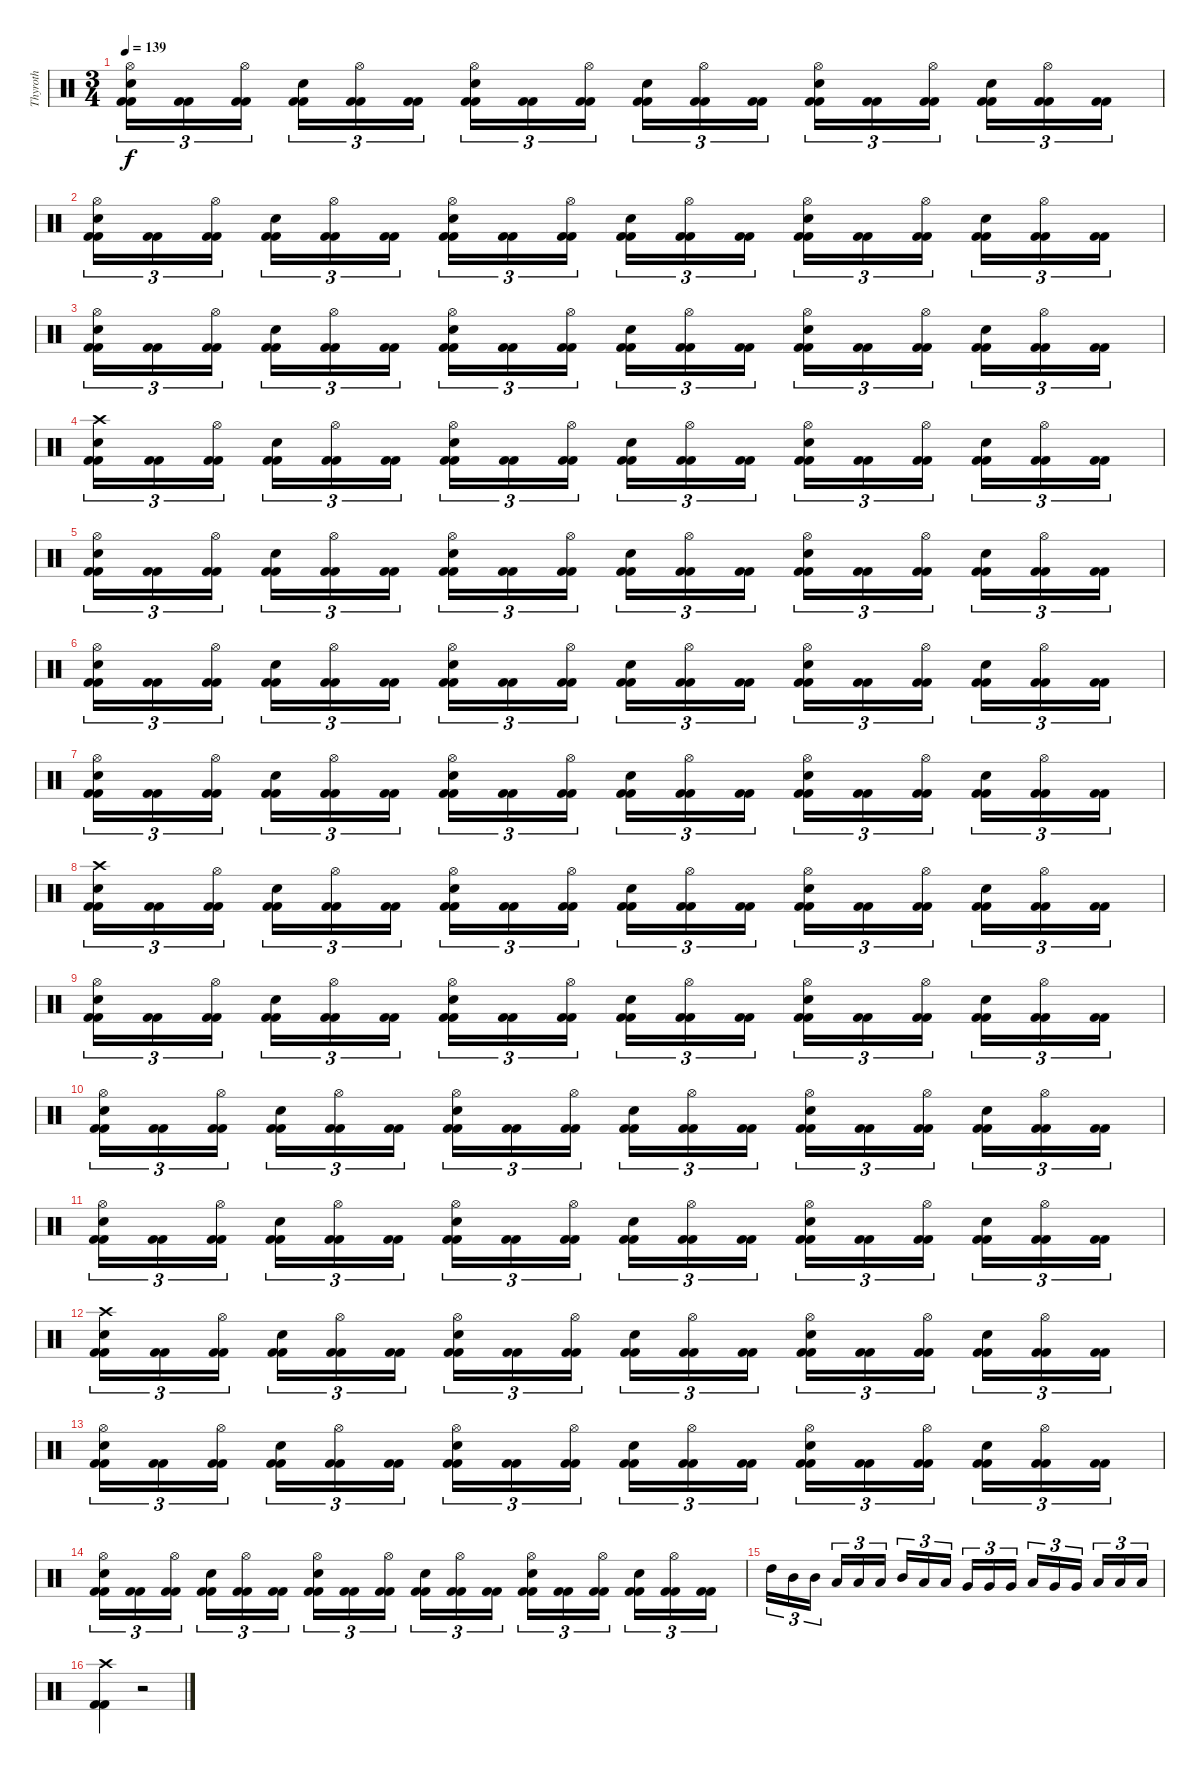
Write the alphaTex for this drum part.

\track ("Thyroth" "Thyroth") {instrument percussion}
\staff {score}
\articulation defaults
\ts (3 4)
\tempo 139
\clef neutral
\ks c
("Kick (hit) 2" "Kick (hit) 2" "Snare (hit) 2" "Hi-Hat (open)").16{tu (3 2) dy f} ("Kick (hit) 2" "Kick (hit) 2").16{tu (3 2)} ("Kick (hit) 2" "Kick (hit) 2" "Hi-Hat (open)").16{tu (3 2)} ("Kick (hit) 2" "Kick (hit) 2" "Snare (hit) 2").16{tu (3 2)} ("Kick (hit) 2" "Kick (hit) 2" "Hi-Hat (open)").16{tu (3 2)} ("Kick (hit) 2" "Kick (hit) 2").16{tu (3 2)} ("Kick (hit) 2" "Kick (hit) 2" "Snare (hit) 2" "Hi-Hat (open)").16{tu (3 2)} ("Kick (hit) 2" "Kick (hit) 2").16{tu (3 2)} ("Kick (hit) 2" "Kick (hit) 2" "Hi-Hat (open)").16{tu (3 2)} ("Kick (hit) 2" "Kick (hit) 2" "Snare (hit) 2").16{tu (3 2)} ("Kick (hit) 2" "Kick (hit) 2" "Hi-Hat (open)").16{tu (3 2)} ("Kick (hit) 2" "Kick (hit) 2").16{tu (3 2)} ("Kick (hit) 2" "Kick (hit) 2" "Snare (hit) 2" "Hi-Hat (open)").16{tu (3 2)} ("Kick (hit) 2" "Kick (hit) 2").16{tu (3 2)} ("Kick (hit) 2" "Kick (hit) 2" "Hi-Hat (open)").16{tu (3 2)} ("Kick (hit) 2" "Kick (hit) 2" "Snare (hit) 2").16{tu (3 2)} ("Kick (hit) 2" "Kick (hit) 2" "Hi-Hat (open)").16{tu (3 2)} ("Kick (hit) 2" "Kick (hit) 2").16{tu (3 2)} |
("Kick (hit) 2" "Kick (hit) 2" "Snare (hit) 2" "Hi-Hat (open)").16{tu (3 2)} ("Kick (hit) 2" "Kick (hit) 2").16{tu (3 2)} ("Kick (hit) 2" "Kick (hit) 2" "Hi-Hat (open)").16{tu (3 2)} ("Kick (hit) 2" "Kick (hit) 2" "Snare (hit) 2").16{tu (3 2)} ("Kick (hit) 2" "Kick (hit) 2" "Hi-Hat (open)").16{tu (3 2)} ("Kick (hit) 2" "Kick (hit) 2").16{tu (3 2)} ("Kick (hit) 2" "Kick (hit) 2" "Snare (hit) 2" "Hi-Hat (open)").16{tu (3 2)} ("Kick (hit) 2" "Kick (hit) 2").16{tu (3 2)} ("Kick (hit) 2" "Kick (hit) 2" "Hi-Hat (open)").16{tu (3 2)} ("Kick (hit) 2" "Kick (hit) 2" "Snare (hit) 2").16{tu (3 2)} ("Kick (hit) 2" "Kick (hit) 2" "Hi-Hat (open)").16{tu (3 2)} ("Kick (hit) 2" "Kick (hit) 2").16{tu (3 2)} ("Kick (hit) 2" "Kick (hit) 2" "Snare (hit) 2" "Hi-Hat (open)").16{tu (3 2)} ("Kick (hit) 2" "Kick (hit) 2").16{tu (3 2)} ("Kick (hit) 2" "Kick (hit) 2" "Hi-Hat (open)").16{tu (3 2)} ("Kick (hit) 2" "Kick (hit) 2" "Snare (hit) 2").16{tu (3 2)} ("Kick (hit) 2" "Kick (hit) 2" "Hi-Hat (open)").16{tu (3 2)} ("Kick (hit) 2" "Kick (hit) 2").16{tu (3 2)} |
("Kick (hit) 2" "Kick (hit) 2" "Snare (hit) 2" "Hi-Hat (open)").16{tu (3 2)} ("Kick (hit) 2" "Kick (hit) 2").16{tu (3 2)} ("Kick (hit) 2" "Kick (hit) 2" "Hi-Hat (open)").16{tu (3 2)} ("Kick (hit) 2" "Kick (hit) 2" "Snare (hit) 2").16{tu (3 2)} ("Kick (hit) 2" "Kick (hit) 2" "Hi-Hat (open)").16{tu (3 2)} ("Kick (hit) 2" "Kick (hit) 2").16{tu (3 2)} ("Kick (hit) 2" "Kick (hit) 2" "Snare (hit) 2" "Hi-Hat (open)").16{tu (3 2)} ("Kick (hit) 2" "Kick (hit) 2").16{tu (3 2)} ("Kick (hit) 2" "Kick (hit) 2" "Hi-Hat (open)").16{tu (3 2)} ("Kick (hit) 2" "Kick (hit) 2" "Snare (hit) 2").16{tu (3 2)} ("Kick (hit) 2" "Kick (hit) 2" "Hi-Hat (open)").16{tu (3 2)} ("Kick (hit) 2" "Kick (hit) 2").16{tu (3 2)} ("Kick (hit) 2" "Kick (hit) 2" "Snare (hit) 2" "Hi-Hat (open)").16{tu (3 2)} ("Kick (hit) 2" "Kick (hit) 2").16{tu (3 2)} ("Kick (hit) 2" "Kick (hit) 2" "Hi-Hat (open)").16{tu (3 2)} ("Kick (hit) 2" "Kick (hit) 2" "Snare (hit) 2").16{tu (3 2)} ("Kick (hit) 2" "Kick (hit) 2" "Hi-Hat (open)").16{tu (3 2)} ("Kick (hit) 2" "Kick (hit) 2").16{tu (3 2)} |
("Kick (hit) 2" "Kick (hit) 2" "Snare (hit) 2" "Crash high (hit)").16{tu (3 2)} ("Kick (hit) 2" "Kick (hit) 2").16{tu (3 2)} ("Kick (hit) 2" "Kick (hit) 2" "Hi-Hat (open)").16{tu (3 2)} ("Kick (hit) 2" "Kick (hit) 2" "Snare (hit) 2").16{tu (3 2)} ("Kick (hit) 2" "Kick (hit) 2" "Hi-Hat (open)").16{tu (3 2)} ("Kick (hit) 2" "Kick (hit) 2").16{tu (3 2)} ("Kick (hit) 2" "Kick (hit) 2" "Snare (hit) 2" "Hi-Hat (open)").16{tu (3 2)} ("Kick (hit) 2" "Kick (hit) 2").16{tu (3 2)} ("Kick (hit) 2" "Kick (hit) 2" "Hi-Hat (open)").16{tu (3 2)} ("Kick (hit) 2" "Kick (hit) 2" "Snare (hit) 2").16{tu (3 2)} ("Kick (hit) 2" "Kick (hit) 2" "Hi-Hat (open)").16{tu (3 2)} ("Kick (hit) 2" "Kick (hit) 2").16{tu (3 2)} ("Kick (hit) 2" "Kick (hit) 2" "Snare (hit) 2" "Hi-Hat (open)").16{tu (3 2)} ("Kick (hit) 2" "Kick (hit) 2").16{tu (3 2)} ("Kick (hit) 2" "Kick (hit) 2" "Hi-Hat (open)").16{tu (3 2)} ("Kick (hit) 2" "Kick (hit) 2" "Snare (hit) 2").16{tu (3 2)} ("Kick (hit) 2" "Kick (hit) 2" "Hi-Hat (open)").16{tu (3 2)} ("Kick (hit) 2" "Kick (hit) 2").16{tu (3 2)} |
("Kick (hit) 2" "Kick (hit) 2" "Snare (hit) 2" "Hi-Hat (open)").16{tu (3 2)} ("Kick (hit) 2" "Kick (hit) 2").16{tu (3 2)} ("Kick (hit) 2" "Kick (hit) 2" "Hi-Hat (open)").16{tu (3 2)} ("Kick (hit) 2" "Kick (hit) 2" "Snare (hit) 2").16{tu (3 2)} ("Kick (hit) 2" "Kick (hit) 2" "Hi-Hat (open)").16{tu (3 2)} ("Kick (hit) 2" "Kick (hit) 2").16{tu (3 2)} ("Kick (hit) 2" "Kick (hit) 2" "Snare (hit) 2" "Hi-Hat (open)").16{tu (3 2)} ("Kick (hit) 2" "Kick (hit) 2").16{tu (3 2)} ("Kick (hit) 2" "Kick (hit) 2" "Hi-Hat (open)").16{tu (3 2)} ("Kick (hit) 2" "Kick (hit) 2" "Snare (hit) 2").16{tu (3 2)} ("Kick (hit) 2" "Kick (hit) 2" "Hi-Hat (open)").16{tu (3 2)} ("Kick (hit) 2" "Kick (hit) 2").16{tu (3 2)} ("Kick (hit) 2" "Kick (hit) 2" "Snare (hit) 2" "Hi-Hat (open)").16{tu (3 2)} ("Kick (hit) 2" "Kick (hit) 2").16{tu (3 2)} ("Kick (hit) 2" "Kick (hit) 2" "Hi-Hat (open)").16{tu (3 2)} ("Kick (hit) 2" "Kick (hit) 2" "Snare (hit) 2").16{tu (3 2)} ("Kick (hit) 2" "Kick (hit) 2" "Hi-Hat (open)").16{tu (3 2)} ("Kick (hit) 2" "Kick (hit) 2").16{tu (3 2)} |
("Kick (hit) 2" "Kick (hit) 2" "Snare (hit) 2" "Hi-Hat (open)").16{tu (3 2)} ("Kick (hit) 2" "Kick (hit) 2").16{tu (3 2)} ("Kick (hit) 2" "Kick (hit) 2" "Hi-Hat (open)").16{tu (3 2)} ("Kick (hit) 2" "Kick (hit) 2" "Snare (hit) 2").16{tu (3 2)} ("Kick (hit) 2" "Kick (hit) 2" "Hi-Hat (open)").16{tu (3 2)} ("Kick (hit) 2" "Kick (hit) 2").16{tu (3 2)} ("Kick (hit) 2" "Kick (hit) 2" "Snare (hit) 2" "Hi-Hat (open)").16{tu (3 2)} ("Kick (hit) 2" "Kick (hit) 2").16{tu (3 2)} ("Kick (hit) 2" "Kick (hit) 2" "Hi-Hat (open)").16{tu (3 2)} ("Kick (hit) 2" "Kick (hit) 2" "Snare (hit) 2").16{tu (3 2)} ("Kick (hit) 2" "Kick (hit) 2" "Hi-Hat (open)").16{tu (3 2)} ("Kick (hit) 2" "Kick (hit) 2").16{tu (3 2)} ("Kick (hit) 2" "Kick (hit) 2" "Snare (hit) 2" "Hi-Hat (open)").16{tu (3 2)} ("Kick (hit) 2" "Kick (hit) 2").16{tu (3 2)} ("Kick (hit) 2" "Kick (hit) 2" "Hi-Hat (open)").16{tu (3 2)} ("Kick (hit) 2" "Kick (hit) 2" "Snare (hit) 2").16{tu (3 2)} ("Kick (hit) 2" "Kick (hit) 2" "Hi-Hat (open)").16{tu (3 2)} ("Kick (hit) 2" "Kick (hit) 2").16{tu (3 2)} |
("Kick (hit) 2" "Kick (hit) 2" "Snare (hit) 2" "Hi-Hat (open)").16{tu (3 2)} ("Kick (hit) 2" "Kick (hit) 2").16{tu (3 2)} ("Kick (hit) 2" "Kick (hit) 2" "Hi-Hat (open)").16{tu (3 2)} ("Kick (hit) 2" "Kick (hit) 2" "Snare (hit) 2").16{tu (3 2)} ("Kick (hit) 2" "Kick (hit) 2" "Hi-Hat (open)").16{tu (3 2)} ("Kick (hit) 2" "Kick (hit) 2").16{tu (3 2)} ("Kick (hit) 2" "Kick (hit) 2" "Snare (hit) 2" "Hi-Hat (open)").16{tu (3 2)} ("Kick (hit) 2" "Kick (hit) 2").16{tu (3 2)} ("Kick (hit) 2" "Kick (hit) 2" "Hi-Hat (open)").16{tu (3 2)} ("Kick (hit) 2" "Kick (hit) 2" "Snare (hit) 2").16{tu (3 2)} ("Kick (hit) 2" "Kick (hit) 2" "Hi-Hat (open)").16{tu (3 2)} ("Kick (hit) 2" "Kick (hit) 2").16{tu (3 2)} ("Kick (hit) 2" "Kick (hit) 2" "Snare (hit) 2" "Hi-Hat (open)").16{tu (3 2)} ("Kick (hit) 2" "Kick (hit) 2").16{tu (3 2)} ("Kick (hit) 2" "Kick (hit) 2" "Hi-Hat (open)").16{tu (3 2)} ("Kick (hit) 2" "Kick (hit) 2" "Snare (hit) 2").16{tu (3 2)} ("Kick (hit) 2" "Kick (hit) 2" "Hi-Hat (open)").16{tu (3 2)} ("Kick (hit) 2" "Kick (hit) 2").16{tu (3 2)} |
("Kick (hit) 2" "Kick (hit) 2" "Snare (hit) 2" "Crash high (hit)").16{tu (3 2)} ("Kick (hit) 2" "Kick (hit) 2").16{tu (3 2)} ("Kick (hit) 2" "Kick (hit) 2" "Hi-Hat (open)").16{tu (3 2)} ("Kick (hit) 2" "Kick (hit) 2" "Snare (hit) 2").16{tu (3 2)} ("Kick (hit) 2" "Kick (hit) 2" "Hi-Hat (open)").16{tu (3 2)} ("Kick (hit) 2" "Kick (hit) 2").16{tu (3 2)} ("Kick (hit) 2" "Kick (hit) 2" "Snare (hit) 2" "Hi-Hat (open)").16{tu (3 2)} ("Kick (hit) 2" "Kick (hit) 2").16{tu (3 2)} ("Kick (hit) 2" "Kick (hit) 2" "Hi-Hat (open)").16{tu (3 2)} ("Kick (hit) 2" "Kick (hit) 2" "Snare (hit) 2").16{tu (3 2)} ("Kick (hit) 2" "Kick (hit) 2" "Hi-Hat (open)").16{tu (3 2)} ("Kick (hit) 2" "Kick (hit) 2").16{tu (3 2)} ("Kick (hit) 2" "Kick (hit) 2" "Snare (hit) 2" "Hi-Hat (open)").16{tu (3 2)} ("Kick (hit) 2" "Kick (hit) 2").16{tu (3 2)} ("Kick (hit) 2" "Kick (hit) 2" "Hi-Hat (open)").16{tu (3 2)} ("Kick (hit) 2" "Kick (hit) 2" "Snare (hit) 2").16{tu (3 2)} ("Kick (hit) 2" "Kick (hit) 2" "Hi-Hat (open)").16{tu (3 2)} ("Kick (hit) 2" "Kick (hit) 2").16{tu (3 2)} |
("Kick (hit) 2" "Kick (hit) 2" "Snare (hit) 2" "Hi-Hat (open)").16{tu (3 2)} ("Kick (hit) 2" "Kick (hit) 2").16{tu (3 2)} ("Kick (hit) 2" "Kick (hit) 2" "Hi-Hat (open)").16{tu (3 2)} ("Kick (hit) 2" "Kick (hit) 2" "Snare (hit) 2").16{tu (3 2)} ("Kick (hit) 2" "Kick (hit) 2" "Hi-Hat (open)").16{tu (3 2)} ("Kick (hit) 2" "Kick (hit) 2").16{tu (3 2)} ("Kick (hit) 2" "Kick (hit) 2" "Snare (hit) 2" "Hi-Hat (open)").16{tu (3 2)} ("Kick (hit) 2" "Kick (hit) 2").16{tu (3 2)} ("Kick (hit) 2" "Kick (hit) 2" "Hi-Hat (open)").16{tu (3 2)} ("Kick (hit) 2" "Kick (hit) 2" "Snare (hit) 2").16{tu (3 2)} ("Kick (hit) 2" "Kick (hit) 2" "Hi-Hat (open)").16{tu (3 2)} ("Kick (hit) 2" "Kick (hit) 2").16{tu (3 2)} ("Kick (hit) 2" "Kick (hit) 2" "Snare (hit) 2" "Hi-Hat (open)").16{tu (3 2)} ("Kick (hit) 2" "Kick (hit) 2").16{tu (3 2)} ("Kick (hit) 2" "Kick (hit) 2" "Hi-Hat (open)").16{tu (3 2)} ("Kick (hit) 2" "Kick (hit) 2" "Snare (hit) 2").16{tu (3 2)} ("Kick (hit) 2" "Kick (hit) 2" "Hi-Hat (open)").16{tu (3 2)} ("Kick (hit) 2" "Kick (hit) 2").16{tu (3 2)} |
("Kick (hit) 2" "Kick (hit) 2" "Snare (hit) 2" "Hi-Hat (open)").16{tu (3 2)} ("Kick (hit) 2" "Kick (hit) 2").16{tu (3 2)} ("Kick (hit) 2" "Kick (hit) 2" "Hi-Hat (open)").16{tu (3 2)} ("Kick (hit) 2" "Kick (hit) 2" "Snare (hit) 2").16{tu (3 2)} ("Kick (hit) 2" "Kick (hit) 2" "Hi-Hat (open)").16{tu (3 2)} ("Kick (hit) 2" "Kick (hit) 2").16{tu (3 2)} ("Kick (hit) 2" "Kick (hit) 2" "Snare (hit) 2" "Hi-Hat (open)").16{tu (3 2)} ("Kick (hit) 2" "Kick (hit) 2").16{tu (3 2)} ("Kick (hit) 2" "Kick (hit) 2" "Hi-Hat (open)").16{tu (3 2)} ("Kick (hit) 2" "Kick (hit) 2" "Snare (hit) 2").16{tu (3 2)} ("Kick (hit) 2" "Kick (hit) 2" "Hi-Hat (open)").16{tu (3 2)} ("Kick (hit) 2" "Kick (hit) 2").16{tu (3 2)} ("Kick (hit) 2" "Kick (hit) 2" "Snare (hit) 2" "Hi-Hat (open)").16{tu (3 2)} ("Kick (hit) 2" "Kick (hit) 2").16{tu (3 2)} ("Kick (hit) 2" "Kick (hit) 2" "Hi-Hat (open)").16{tu (3 2)} ("Kick (hit) 2" "Kick (hit) 2" "Snare (hit) 2").16{tu (3 2)} ("Kick (hit) 2" "Kick (hit) 2" "Hi-Hat (open)").16{tu (3 2)} ("Kick (hit) 2" "Kick (hit) 2").16{tu (3 2)} |
("Kick (hit) 2" "Kick (hit) 2" "Snare (hit) 2" "Hi-Hat (open)").16{tu (3 2)} ("Kick (hit) 2" "Kick (hit) 2").16{tu (3 2)} ("Kick (hit) 2" "Kick (hit) 2" "Hi-Hat (open)").16{tu (3 2)} ("Kick (hit) 2" "Kick (hit) 2" "Snare (hit) 2").16{tu (3 2)} ("Kick (hit) 2" "Kick (hit) 2" "Hi-Hat (open)").16{tu (3 2)} ("Kick (hit) 2" "Kick (hit) 2").16{tu (3 2)} ("Kick (hit) 2" "Kick (hit) 2" "Snare (hit) 2" "Hi-Hat (open)").16{tu (3 2)} ("Kick (hit) 2" "Kick (hit) 2").16{tu (3 2)} ("Kick (hit) 2" "Kick (hit) 2" "Hi-Hat (open)").16{tu (3 2)} ("Kick (hit) 2" "Kick (hit) 2" "Snare (hit) 2").16{tu (3 2)} ("Kick (hit) 2" "Kick (hit) 2" "Hi-Hat (open)").16{tu (3 2)} ("Kick (hit) 2" "Kick (hit) 2").16{tu (3 2)} ("Kick (hit) 2" "Kick (hit) 2" "Snare (hit) 2" "Hi-Hat (open)").16{tu (3 2)} ("Kick (hit) 2" "Kick (hit) 2").16{tu (3 2)} ("Kick (hit) 2" "Kick (hit) 2" "Hi-Hat (open)").16{tu (3 2)} ("Kick (hit) 2" "Kick (hit) 2" "Snare (hit) 2").16{tu (3 2)} ("Kick (hit) 2" "Kick (hit) 2" "Hi-Hat (open)").16{tu (3 2)} ("Kick (hit) 2" "Kick (hit) 2").16{tu (3 2)} |
("Kick (hit) 2" "Kick (hit) 2" "Snare (hit) 2" "Crash high (hit)").16{tu (3 2)} ("Kick (hit) 2" "Kick (hit) 2").16{tu (3 2)} ("Kick (hit) 2" "Kick (hit) 2" "Hi-Hat (open)").16{tu (3 2)} ("Kick (hit) 2" "Kick (hit) 2" "Snare (hit) 2").16{tu (3 2)} ("Kick (hit) 2" "Kick (hit) 2" "Hi-Hat (open)").16{tu (3 2)} ("Kick (hit) 2" "Kick (hit) 2").16{tu (3 2)} ("Kick (hit) 2" "Kick (hit) 2" "Snare (hit) 2" "Hi-Hat (open)").16{tu (3 2)} ("Kick (hit) 2" "Kick (hit) 2").16{tu (3 2)} ("Kick (hit) 2" "Kick (hit) 2" "Hi-Hat (open)").16{tu (3 2)} ("Kick (hit) 2" "Kick (hit) 2" "Snare (hit) 2").16{tu (3 2)} ("Kick (hit) 2" "Kick (hit) 2" "Hi-Hat (open)").16{tu (3 2)} ("Kick (hit) 2" "Kick (hit) 2").16{tu (3 2)} ("Kick (hit) 2" "Kick (hit) 2" "Snare (hit) 2" "Hi-Hat (open)").16{tu (3 2)} ("Kick (hit) 2" "Kick (hit) 2").16{tu (3 2)} ("Kick (hit) 2" "Kick (hit) 2" "Hi-Hat (open)").16{tu (3 2)} ("Kick (hit) 2" "Kick (hit) 2" "Snare (hit) 2").16{tu (3 2)} ("Kick (hit) 2" "Kick (hit) 2" "Hi-Hat (open)").16{tu (3 2)} ("Kick (hit) 2" "Kick (hit) 2").16{tu (3 2)} |
("Kick (hit) 2" "Kick (hit) 2" "Snare (hit) 2" "Hi-Hat (open)").16{tu (3 2)} ("Kick (hit) 2" "Kick (hit) 2").16{tu (3 2)} ("Kick (hit) 2" "Kick (hit) 2" "Hi-Hat (open)").16{tu (3 2)} ("Kick (hit) 2" "Kick (hit) 2" "Snare (hit) 2").16{tu (3 2)} ("Kick (hit) 2" "Kick (hit) 2" "Hi-Hat (open)").16{tu (3 2)} ("Kick (hit) 2" "Kick (hit) 2").16{tu (3 2)} ("Kick (hit) 2" "Kick (hit) 2" "Snare (hit) 2" "Hi-Hat (open)").16{tu (3 2)} ("Kick (hit) 2" "Kick (hit) 2").16{tu (3 2)} ("Kick (hit) 2" "Kick (hit) 2" "Hi-Hat (open)").16{tu (3 2)} ("Kick (hit) 2" "Kick (hit) 2" "Snare (hit) 2").16{tu (3 2)} ("Kick (hit) 2" "Kick (hit) 2" "Hi-Hat (open)").16{tu (3 2)} ("Kick (hit) 2" "Kick (hit) 2").16{tu (3 2)} ("Kick (hit) 2" "Kick (hit) 2" "Snare (hit) 2" "Hi-Hat (open)").16{tu (3 2)} ("Kick (hit) 2" "Kick (hit) 2").16{tu (3 2)} ("Kick (hit) 2" "Kick (hit) 2" "Hi-Hat (open)").16{tu (3 2)} ("Kick (hit) 2" "Kick (hit) 2" "Snare (hit) 2").16{tu (3 2)} ("Kick (hit) 2" "Kick (hit) 2" "Hi-Hat (open)").16{tu (3 2)} ("Kick (hit) 2" "Kick (hit) 2").16{tu (3 2)} |
("Kick (hit) 2" "Kick (hit) 2" "Snare (hit) 2" "Hi-Hat (open)").16{tu (3 2)} ("Kick (hit) 2" "Kick (hit) 2").16{tu (3 2)} ("Kick (hit) 2" "Kick (hit) 2" "Hi-Hat (open)").16{tu (3 2)} ("Kick (hit) 2" "Kick (hit) 2" "Snare (hit) 2").16{tu (3 2)} ("Kick (hit) 2" "Kick (hit) 2" "Hi-Hat (open)").16{tu (3 2)} ("Kick (hit) 2" "Kick (hit) 2").16{tu (3 2)} ("Kick (hit) 2" "Kick (hit) 2" "Snare (hit) 2" "Hi-Hat (open)").16{tu (3 2)} ("Kick (hit) 2" "Kick (hit) 2").16{tu (3 2)} ("Kick (hit) 2" "Kick (hit) 2" "Hi-Hat (open)").16{tu (3 2)} ("Kick (hit) 2" "Kick (hit) 2" "Snare (hit) 2").16{tu (3 2)} ("Kick (hit) 2" "Kick (hit) 2" "Hi-Hat (open)").16{tu (3 2)} ("Kick (hit) 2" "Kick (hit) 2").16{tu (3 2)} ("Kick (hit) 2" "Kick (hit) 2" "Snare (hit) 2" "Hi-Hat (open)").16{tu (3 2)} ("Kick (hit) 2" "Kick (hit) 2").16{tu (3 2)} ("Kick (hit) 2" "Kick (hit) 2" "Hi-Hat (open)").16{tu (3 2)} ("Kick (hit) 2" "Kick (hit) 2" "Snare (hit) 2").16{tu (3 2)} ("Kick (hit) 2" "Kick (hit) 2" "Hi-Hat (open)").16{tu (3 2)} ("Kick (hit) 2" "Kick (hit) 2").16{tu (3 2)} |
"High Tom (hit)".16{tu (3 2)} "Mid Tom (hit)".16{tu (3 2)} "Mid Tom (hit)".16{tu (3 2)} "Low Tom (hit)".16{tu (3 2)} "Low Tom (hit)".16{tu (3 2)} "Low Tom (hit)".16{tu (3 2)} "Mid Tom (hit)".16{tu (3 2)} "Low Tom (hit)".16{tu (3 2)} "Low Tom (hit)".16{tu (3 2)} "Very Low Tom (hit)".16{tu (3 2)} "Very Low Tom (hit)".16{tu (3 2)} "Very Low Tom (hit)".16{tu (3 2)} "Low Tom (hit)".16{tu (3 2)} "Very Low Tom (hit)".16{tu (3 2)} "Very Low Tom (hit)".16{tu (3 2)} "Low Floor Tom (hit)".16{tu (3 2)} "Low Floor Tom (hit)".16{tu (3 2)} "Low Floor Tom (hit)".16{tu (3 2)} |
("Kick (hit) 2" "Kick (hit) 2" "Crash high (hit)").4 r.2
